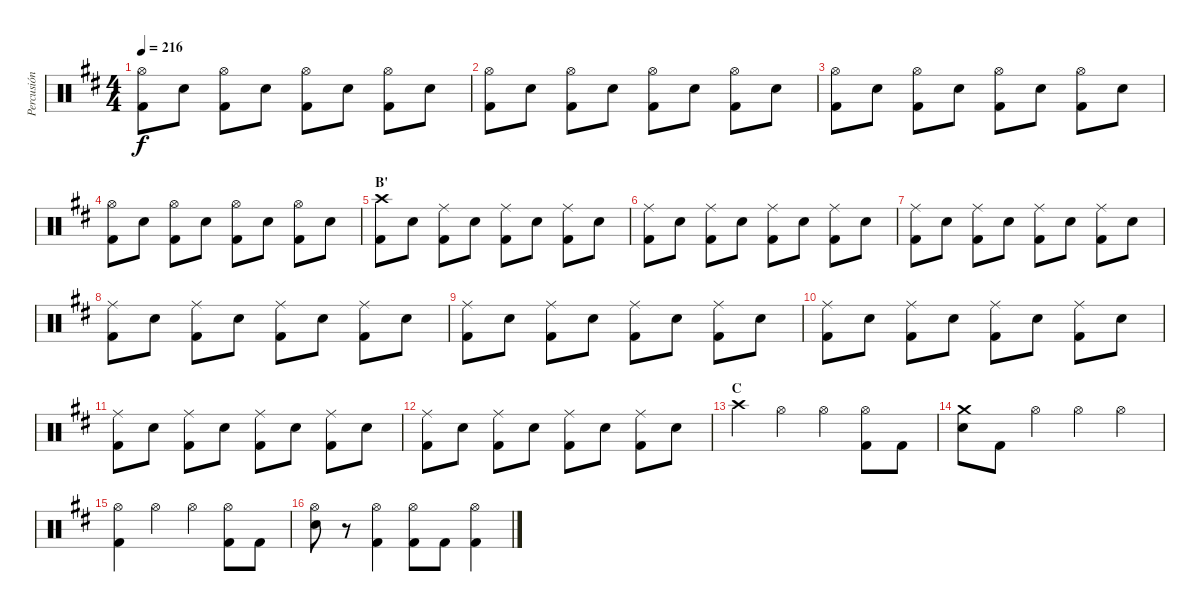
\track ("Percusión" "Percusión") {instrument percussion}
\staff {score}
\articulation defaults
\ts (4 4)
\tempo 216
\clef neutral
\ks d
("Hi-Hat (open)" "Kick (hit) 2").8{dy f} "Electric Snare (hit)".8 ("Hi-Hat (open)" "Kick (hit) 2").8 "Electric Snare (hit)".8 ("Hi-Hat (open)" "Kick (hit) 2").8 "Electric Snare (hit)".8 ("Hi-Hat (open)" "Kick (hit) 2").8 "Electric Snare (hit)".8 |
("Hi-Hat (open)" "Kick (hit) 2").8 "Electric Snare (hit)".8 ("Hi-Hat (open)" "Kick (hit) 2").8 "Electric Snare (hit)".8 ("Hi-Hat (open)" "Kick (hit) 2").8 "Electric Snare (hit)".8 ("Hi-Hat (open)" "Kick (hit) 2").8 "Electric Snare (hit)".8 |
("Hi-Hat (open)" "Kick (hit) 2").8 "Electric Snare (hit)".8 ("Hi-Hat (open)" "Kick (hit) 2").8 "Electric Snare (hit)".8 ("Hi-Hat (open)" "Kick (hit) 2").8 "Electric Snare (hit)".8 ("Hi-Hat (open)" "Kick (hit) 2").8 "Electric Snare (hit)".8 |
("Hi-Hat (open)" "Kick (hit) 2").8 "Electric Snare (hit)".8 ("Hi-Hat (open)" "Kick (hit) 2").8 "Electric Snare (hit)".8 ("Hi-Hat (open)" "Kick (hit) 2").8 "Electric Snare (hit)".8 ("Hi-Hat (open)" "Kick (hit) 2").8 "Electric Snare (hit)".8 |
\section ("" "B'")
("Crash high (hit)" "Kick (hit) 2").8 "Electric Snare (hit)".8 ("Ride (middle)" "Kick (hit) 2").8 "Electric Snare (hit)".8 ("Ride (middle)" "Kick (hit) 2").8 "Electric Snare (hit)".8 ("Ride (middle)" "Kick (hit) 2").8 "Electric Snare (hit)".8 |
("Ride (middle)" "Kick (hit) 2").8 "Electric Snare (hit)".8 ("Ride (middle)" "Kick (hit) 2").8 "Electric Snare (hit)".8 ("Ride (middle)" "Kick (hit) 2").8 "Electric Snare (hit)".8 ("Ride (middle)" "Kick (hit) 2").8 "Electric Snare (hit)".8 |
("Ride (middle)" "Kick (hit) 2").8 "Electric Snare (hit)".8 ("Ride (middle)" "Kick (hit) 2").8 "Electric Snare (hit)".8 ("Ride (middle)" "Kick (hit) 2").8 "Electric Snare (hit)".8 ("Ride (middle)" "Kick (hit) 2").8 "Electric Snare (hit)".8 |
("Ride (middle)" "Kick (hit) 2").8 "Electric Snare (hit)".8 ("Ride (middle)" "Kick (hit) 2").8 "Electric Snare (hit)".8 ("Ride (middle)" "Kick (hit) 2").8 "Electric Snare (hit)".8 ("Ride (middle)" "Kick (hit) 2").8 "Electric Snare (hit)".8 |
("Ride (middle)" "Kick (hit) 2").8 "Electric Snare (hit)".8 ("Ride (middle)" "Kick (hit) 2").8 "Electric Snare (hit)".8 ("Ride (middle)" "Kick (hit) 2").8 "Electric Snare (hit)".8 ("Ride (middle)" "Kick (hit) 2").8 "Electric Snare (hit)".8 |
("Ride (middle)" "Kick (hit) 2").8 "Electric Snare (hit)".8 ("Ride (middle)" "Kick (hit) 2").8 "Electric Snare (hit)".8 ("Ride (middle)" "Kick (hit) 2").8 "Electric Snare (hit)".8 ("Ride (middle)" "Kick (hit) 2").8 "Electric Snare (hit)".8 |
("Ride (middle)" "Kick (hit) 2").8 "Electric Snare (hit)".8 ("Ride (middle)" "Kick (hit) 2").8 "Electric Snare (hit)".8 ("Ride (middle)" "Kick (hit) 2").8 "Electric Snare (hit)".8 ("Ride (middle)" "Kick (hit) 2").8 "Electric Snare (hit)".8 |
("Ride (middle)" "Kick (hit) 2").8 "Electric Snare (hit)".8 ("Ride (middle)" "Kick (hit) 2").8 "Electric Snare (hit)".8 ("Ride (middle)" "Kick (hit) 2").8 "Electric Snare (hit)".8 ("Ride (middle)" "Kick (hit) 2").8 "Electric Snare (hit)".8 |
\section ("" "C")
"Crash high (hit)".4 "Hi-Hat (open)".4 "Hi-Hat (open)".4 ("Hi-Hat (open)" "Kick (hit) 2").8 "Kick (hit) 2".8 |
("Crash medium (hit)" "Electric Snare (hit)").8 "Kick (hit) 2".8 "Hi-Hat (open)".4 "Hi-Hat (open)".4 "Hi-Hat (open)".4 |
("Hi-Hat (open)" "Kick (hit) 2").4 "Hi-Hat (open)".4 "Hi-Hat (open)".4 ("Hi-Hat (open)" "Kick (hit) 2").8 "Kick (hit) 2".8 |
("Hi-Hat (open)" "Electric Snare (hit)").8 r.8 ("Hi-Hat (open)" "Kick (hit) 2").4 ("Hi-Hat (open)" "Kick (hit) 2").8 "Kick (hit) 2".8 ("Hi-Hat (open)" "Kick (hit) 2").4
